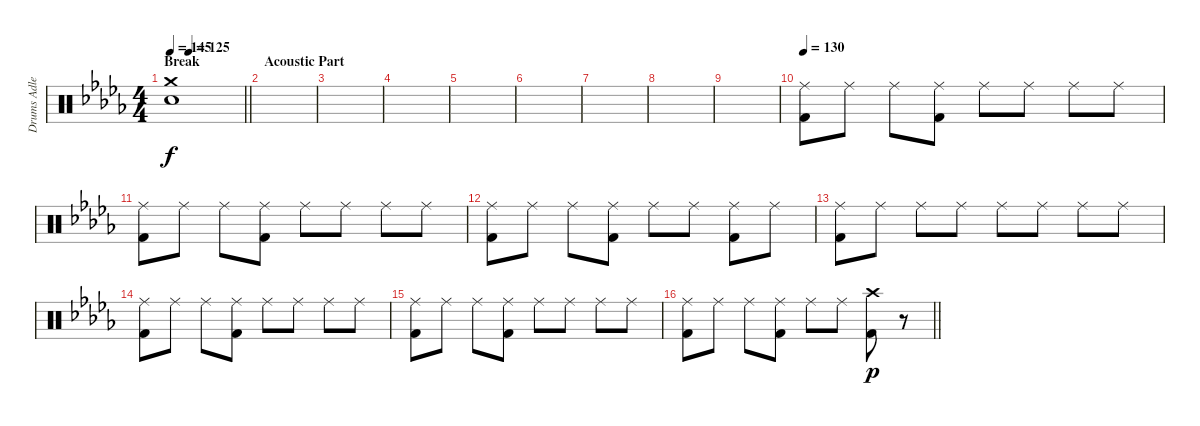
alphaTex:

\track ("Drums Adler" "Drums Adle") {instrument percussion}
\staff {score}
\articulation defaults
\ts (4 4)
\section ("" "Break")
\tempo 145
\tempo (125 0.25)
\clef neutral
\barLineRight lightlight
\ks db
("Crash medium (hit)" "Snare (hit) 2").1{dy f} |
\section ("" "Acoustic Part")
|
|
|
|
|
|
|
|
\tempo 130
("Ride (middle)" "Kick (hit) 2").8 "Ride (middle)".8 "Ride (middle)".8 ("Ride (middle)" "Kick (hit) 2").8 "Ride (middle)".8 "Ride (middle)".8 "Ride (middle)".8 "Ride (middle)".8 |
("Ride (middle)" "Kick (hit) 2").8 "Ride (middle)".8 "Ride (middle)".8 ("Ride (middle)" "Kick (hit) 2").8 "Ride (middle)".8 "Ride (middle)".8 "Ride (middle)".8 "Ride (middle)".8 |
("Ride (middle)" "Kick (hit) 2").8 "Ride (middle)".8 "Ride (middle)".8 ("Ride (middle)" "Kick (hit) 2").8 "Ride (middle)".8 "Ride (middle)".8 ("Ride (middle)" "Kick (hit) 2").8 "Ride (middle)".8 |
("Ride (middle)" "Kick (hit) 2").8 "Ride (middle)".8 "Ride (middle)".8 "Ride (middle)".8 "Ride (middle)".8 "Ride (middle)".8 "Ride (middle)".8 "Ride (middle)".8 |
("Ride (middle)" "Kick (hit) 2").8 "Ride (middle)".8 "Ride (middle)".8 ("Ride (middle)" "Kick (hit) 2").8 "Ride (middle)".8 "Ride (middle)".8 "Ride (middle)".8 "Ride (middle)".8 |
("Ride (middle)" "Kick (hit) 2").8 "Ride (middle)".8 "Ride (middle)".8 ("Ride (middle)" "Kick (hit) 2").8 "Ride (middle)".8 "Ride (middle)".8 "Ride (middle)".8 "Ride (middle)".8 |
\barLineRight lightlight
("Ride (middle)" "Kick (hit) 2").8 "Ride (middle)".8 "Ride (middle)".8 ("Ride (middle)" "Kick (hit) 2").8 "Ride (middle)".8 "Ride (middle)".8 ("Crash high (hit)" "Kick (hit) 2").8{dy p} r.8
